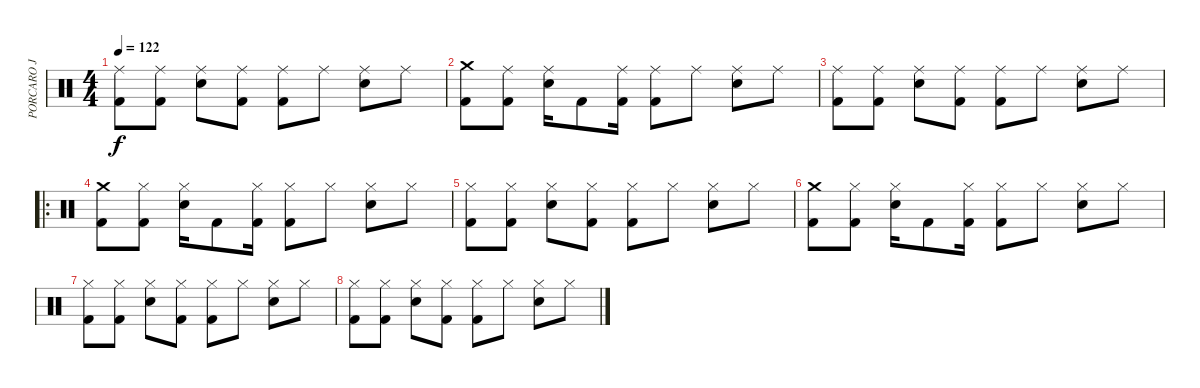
\track ("PORCARO J" "PORCARO J") {instrument percussion}
\staff {score}
\articulation defaults
\ts (4 4)
\tempo 122
\clef neutral
\ks c
("Ride (middle)" "Kick (hit) 2").8{dy f} ("Ride (middle)" "Kick (hit) 2").8 ("Ride (middle)" "Electric Snare (hit)").8 ("Ride (middle)" "Kick (hit) 2").8 ("Ride (middle)" "Kick (hit) 2").8 "Ride (middle)".8 ("Ride (middle)" "Electric Snare (hit)").8 "Ride (middle)".8 |
("Crash medium (hit)" "Kick (hit) 2").8 ("Ride (middle)" "Kick (hit) 2").8 ("Ride (middle)" "Electric Snare (hit)").16 "Kick (hit) 2".8 ("Ride (middle)" "Kick (hit) 2").16 ("Ride (middle)" "Kick (hit) 2").8 "Ride (middle)".8 ("Ride (middle)" "Electric Snare (hit)").8 "Ride (middle)".8 |
("Ride (middle)" "Kick (hit) 2").8 ("Ride (middle)" "Kick (hit) 2").8 ("Ride (middle)" "Electric Snare (hit)").8 ("Ride (middle)" "Kick (hit) 2").8 ("Ride (middle)" "Kick (hit) 2").8 "Ride (middle)".8 ("Ride (middle)" "Electric Snare (hit)").8 "Ride (middle)".8 |
\ro
("Crash medium (hit)" "Kick (hit) 2").8 ("Hi-Hat (closed)" "Kick (hit) 2").8 ("Hi-Hat (closed)" "Electric Snare (hit)").16 "Kick (hit) 2".8 ("Hi-Hat (closed)" "Kick (hit) 2").16 ("Hi-Hat (closed)" "Kick (hit) 2").8 "Hi-Hat (closed)".8 ("Hi-Hat (closed)" "Electric Snare (hit)").8 "Hi-Hat (closed)".8 |
("Hi-Hat (closed)" "Kick (hit) 2").8 ("Hi-Hat (closed)" "Kick (hit) 2").8 ("Hi-Hat (closed)" "Electric Snare (hit)").8 ("Hi-Hat (closed)" "Kick (hit) 2").8 ("Hi-Hat (closed)" "Kick (hit) 2").8 "Hi-Hat (closed)".8 ("Hi-Hat (closed)" "Electric Snare (hit)").8 "Hi-Hat (closed)".8 |
("Crash medium (hit)" "Kick (hit) 2").8 ("Hi-Hat (closed)" "Kick (hit) 2").8 ("Hi-Hat (closed)" "Electric Snare (hit)").16 "Kick (hit) 2".8 ("Hi-Hat (closed)" "Kick (hit) 2").16 ("Hi-Hat (closed)" "Kick (hit) 2").8 "Hi-Hat (closed)".8 ("Hi-Hat (closed)" "Electric Snare (hit)").8 "Hi-Hat (closed)".8 |
("Hi-Hat (closed)" "Kick (hit) 2").8 ("Hi-Hat (closed)" "Kick (hit) 2").8 ("Hi-Hat (closed)" "Electric Snare (hit)").8 ("Hi-Hat (closed)" "Kick (hit) 2").8 ("Hi-Hat (closed)" "Kick (hit) 2").8 "Hi-Hat (closed)".8 ("Hi-Hat (closed)" "Electric Snare (hit)").8 "Hi-Hat (closed)".8 |
("Hi-Hat (closed)" "Kick (hit) 2").8 ("Hi-Hat (closed)" "Kick (hit) 2").8 ("Hi-Hat (closed)" "Electric Snare (hit)").8 ("Hi-Hat (closed)" "Kick (hit) 2").8 ("Hi-Hat (closed)" "Kick (hit) 2").8 "Hi-Hat (closed)".8 ("Hi-Hat (closed)" "Electric Snare (hit)").8 "Hi-Hat (closed)".8
